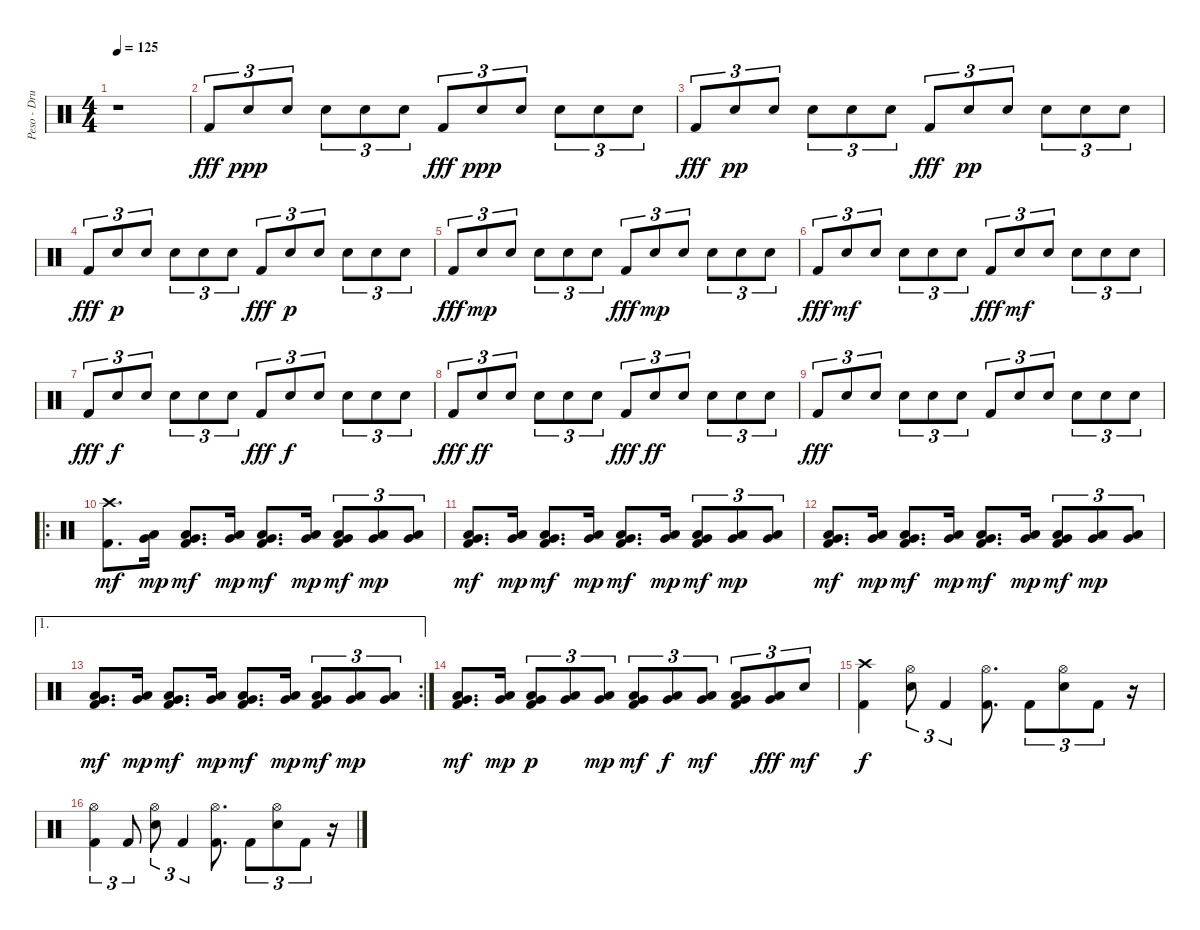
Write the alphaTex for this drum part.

\track ("Peso - Drums" "Peso - Dru") {instrument percussion}
\staff {score}
\articulation defaults
\ts (4 4)
\tempo 125
\clef neutral
\ks c
r.1{dy mp} |
"Kick (hit) 2".8{tu (3 2) dy fff volume 13} "Electric Snare (hit)".8{tu (3 2) dy ppp} "Electric Snare (hit)".8{tu (3 2)} "Electric Snare (hit)".8{tu (3 2)} "Electric Snare (hit)".8{tu (3 2)} "Electric Snare (hit)".8{tu (3 2)} "Kick (hit) 2".8{tu (3 2) dy fff} "Electric Snare (hit)".8{tu (3 2) dy ppp} "Electric Snare (hit)".8{tu (3 2)} "Electric Snare (hit)".8{tu (3 2)} "Electric Snare (hit)".8{tu (3 2)} "Electric Snare (hit)".8{tu (3 2)} |
"Kick (hit) 2".8{tu (3 2) dy fff} "Electric Snare (hit)".8{tu (3 2) dy pp} "Electric Snare (hit)".8{tu (3 2)} "Electric Snare (hit)".8{tu (3 2)} "Electric Snare (hit)".8{tu (3 2)} "Electric Snare (hit)".8{tu (3 2)} "Kick (hit) 2".8{tu (3 2) dy fff} "Electric Snare (hit)".8{tu (3 2) dy pp} "Electric Snare (hit)".8{tu (3 2)} "Electric Snare (hit)".8{tu (3 2)} "Electric Snare (hit)".8{tu (3 2)} "Electric Snare (hit)".8{tu (3 2)} |
"Kick (hit) 2".8{tu (3 2) dy fff} "Electric Snare (hit)".8{tu (3 2) dy p} "Electric Snare (hit)".8{tu (3 2)} "Electric Snare (hit)".8{tu (3 2)} "Electric Snare (hit)".8{tu (3 2)} "Electric Snare (hit)".8{tu (3 2)} "Kick (hit) 2".8{tu (3 2) dy fff} "Electric Snare (hit)".8{tu (3 2) dy p} "Electric Snare (hit)".8{tu (3 2)} "Electric Snare (hit)".8{tu (3 2)} "Electric Snare (hit)".8{tu (3 2)} "Electric Snare (hit)".8{tu (3 2)} |
"Kick (hit) 2".8{tu (3 2) dy fff} "Electric Snare (hit)".8{tu (3 2) dy mp} "Electric Snare (hit)".8{tu (3 2)} "Electric Snare (hit)".8{tu (3 2)} "Electric Snare (hit)".8{tu (3 2)} "Electric Snare (hit)".8{tu (3 2)} "Kick (hit) 2".8{tu (3 2) dy fff} "Electric Snare (hit)".8{tu (3 2) dy mp} "Electric Snare (hit)".8{tu (3 2)} "Electric Snare (hit)".8{tu (3 2)} "Electric Snare (hit)".8{tu (3 2)} "Electric Snare (hit)".8{tu (3 2)} |
"Kick (hit) 2".8{tu (3 2) dy fff} "Electric Snare (hit)".8{tu (3 2) dy mf} "Electric Snare (hit)".8{tu (3 2)} "Electric Snare (hit)".8{tu (3 2)} "Electric Snare (hit)".8{tu (3 2)} "Electric Snare (hit)".8{tu (3 2)} "Kick (hit) 2".8{tu (3 2) dy fff} "Electric Snare (hit)".8{tu (3 2) dy mf} "Electric Snare (hit)".8{tu (3 2)} "Electric Snare (hit)".8{tu (3 2)} "Electric Snare (hit)".8{tu (3 2)} "Electric Snare (hit)".8{tu (3 2)} |
"Kick (hit) 2".8{tu (3 2) dy fff} "Electric Snare (hit)".8{tu (3 2) dy f} "Electric Snare (hit)".8{tu (3 2)} "Electric Snare (hit)".8{tu (3 2)} "Electric Snare (hit)".8{tu (3 2)} "Electric Snare (hit)".8{tu (3 2)} "Kick (hit) 2".8{tu (3 2) dy fff} "Electric Snare (hit)".8{tu (3 2) dy f} "Electric Snare (hit)".8{tu (3 2)} "Electric Snare (hit)".8{tu (3 2)} "Electric Snare (hit)".8{tu (3 2)} "Electric Snare (hit)".8{tu (3 2)} |
"Kick (hit) 2".8{tu (3 2) dy fff} "Electric Snare (hit)".8{tu (3 2) dy ff} "Electric Snare (hit)".8{tu (3 2)} "Electric Snare (hit)".8{tu (3 2)} "Electric Snare (hit)".8{tu (3 2)} "Electric Snare (hit)".8{tu (3 2)} "Kick (hit) 2".8{tu (3 2) dy fff} "Electric Snare (hit)".8{tu (3 2) dy ff} "Electric Snare (hit)".8{tu (3 2)} "Electric Snare (hit)".8{tu (3 2)} "Electric Snare (hit)".8{tu (3 2)} "Electric Snare (hit)".8{tu (3 2)} |
"Kick (hit) 2".8{tu (3 2) dy fff} "Electric Snare (hit)".8{tu (3 2)} "Electric Snare (hit)".8{tu (3 2)} "Electric Snare (hit)".8{tu (3 2)} "Electric Snare (hit)".8{tu (3 2)} "Electric Snare (hit)".8{tu (3 2)} "Kick (hit) 2".8{tu (3 2)} "Electric Snare (hit)".8{tu (3 2)} "Electric Snare (hit)".8{tu (3 2)} "Electric Snare (hit)".8{tu (3 2)} "Electric Snare (hit)".8{tu (3 2)} "Electric Snare (hit)".8{tu (3 2)} |
\ro
("Crash high (hit)" "Kick (hit) 2").8{d dy mf} ("Very Low Tom (hit)" "Low Floor Tom (hit)").16{dy mp} ("Very Low Tom (hit)" "Low Floor Tom (hit)" "Kick (hit) 2").8{d dy mf} ("Very Low Tom (hit)" "Low Floor Tom (hit)").16{dy mp} ("Very Low Tom (hit)" "Low Floor Tom (hit)" "Kick (hit) 2").8{d dy mf} ("Very Low Tom (hit)" "Low Floor Tom (hit)").16{dy mp} ("Very Low Tom (hit)" "Low Floor Tom (hit)" "Kick (hit) 2").8{tu (3 2) dy mf} ("Very Low Tom (hit)" "Low Floor Tom (hit)").8{tu (3 2) dy mp} ("Very Low Tom (hit)" "Low Floor Tom (hit)").8{tu (3 2)} |
("Very Low Tom (hit)" "Low Floor Tom (hit)" "Kick (hit) 2").8{d dy mf} ("Very Low Tom (hit)" "Low Floor Tom (hit)").16{dy mp} ("Very Low Tom (hit)" "Low Floor Tom (hit)" "Kick (hit) 2").8{d dy mf} ("Very Low Tom (hit)" "Low Floor Tom (hit)").16{dy mp} ("Very Low Tom (hit)" "Low Floor Tom (hit)" "Kick (hit) 2").8{d dy mf} ("Very Low Tom (hit)" "Low Floor Tom (hit)").16{dy mp} ("Very Low Tom (hit)" "Low Floor Tom (hit)" "Kick (hit) 2").8{tu (3 2) dy mf} ("Very Low Tom (hit)" "Low Floor Tom (hit)").8{tu (3 2) dy mp} ("Very Low Tom (hit)" "Low Floor Tom (hit)").8{tu (3 2)} |
("Very Low Tom (hit)" "Low Floor Tom (hit)" "Kick (hit) 2").8{d dy mf} ("Very Low Tom (hit)" "Low Floor Tom (hit)").16{dy mp} ("Very Low Tom (hit)" "Low Floor Tom (hit)" "Kick (hit) 2").8{d dy mf} ("Very Low Tom (hit)" "Low Floor Tom (hit)").16{dy mp} ("Very Low Tom (hit)" "Low Floor Tom (hit)" "Kick (hit) 2").8{d dy mf} ("Very Low Tom (hit)" "Low Floor Tom (hit)").16{dy mp} ("Very Low Tom (hit)" "Low Floor Tom (hit)" "Kick (hit) 2").8{tu (3 2) dy mf} ("Very Low Tom (hit)" "Low Floor Tom (hit)").8{tu (3 2) dy mp} ("Very Low Tom (hit)" "Low Floor Tom (hit)").8{tu (3 2)} |
\ae 1
\rc 2
("Very Low Tom (hit)" "Low Floor Tom (hit)" "Kick (hit) 2").8{d dy mf} ("Very Low Tom (hit)" "Low Floor Tom (hit)").16{dy mp} ("Very Low Tom (hit)" "Low Floor Tom (hit)" "Kick (hit) 2").8{d dy mf} ("Very Low Tom (hit)" "Low Floor Tom (hit)").16{dy mp} ("Very Low Tom (hit)" "Low Floor Tom (hit)" "Kick (hit) 2").8{d dy mf} ("Very Low Tom (hit)" "Low Floor Tom (hit)").16{dy mp} ("Very Low Tom (hit)" "Low Floor Tom (hit)" "Kick (hit) 2").8{tu (3 2) dy mf} ("Very Low Tom (hit)" "Low Floor Tom (hit)").8{tu (3 2) dy mp} ("Very Low Tom (hit)" "Low Floor Tom (hit)").8{tu (3 2)} |
("Very Low Tom (hit)" "Low Floor Tom (hit)" "Kick (hit) 2").8{d dy mf} ("Very Low Tom (hit)" "Low Floor Tom (hit)").16{dy mp} ("Very Low Tom (hit)" "Low Floor Tom (hit)" "Kick (hit) 2").8{tu (3 2) dy p} ("Very Low Tom (hit)" "Low Floor Tom (hit)").8{tu (3 2)} ("Very Low Tom (hit)" "Low Floor Tom (hit)").8{tu (3 2) dy mp} ("Very Low Tom (hit)" "Low Floor Tom (hit)" "Kick (hit) 2").8{tu (3 2) dy mf} ("Very Low Tom (hit)" "Low Floor Tom (hit)").8{tu (3 2) dy f} ("Very Low Tom (hit)" "Low Floor Tom (hit)").8{tu (3 2) dy mf} ("Very Low Tom (hit)" "Low Floor Tom (hit)" "Kick (hit) 2").8{tu (3 2)} ("Very Low Tom (hit)" "Low Floor Tom (hit)").8{tu (3 2) dy fff} "Electric Snare (hit)".8{tu (3 2) dy mf} |
("Crash high (hit)" "Kick (hit) 2").4{dy f} ("Hi-Hat (open)" "Electric Snare (hit)").8{tu (3 2)} "Kick (hit) 2".4{tu (3 2)} ("Hi-Hat (open)" "Kick (hit) 2").8{d} "Kick (hit) 2".8{tu (3 2)} ("Hi-Hat (open)" "Electric Snare (hit)").8{tu (3 2)} "Kick (hit) 2".8{tu (3 2)} r.16 |
("Hi-Hat (open)" "Kick (hit) 2").4{tu (3 2)} "Kick (hit) 2".8{tu (3 2)} ("Hi-Hat (open)" "Electric Snare (hit)").8{tu (3 2)} "Kick (hit) 2".4{tu (3 2)} ("Hi-Hat (open)" "Kick (hit) 2").8{d} "Kick (hit) 2".8{tu (3 2)} ("Hi-Hat (open)" "Electric Snare (hit)").8{tu (3 2)} "Kick (hit) 2".8{tu (3 2)} r.16
